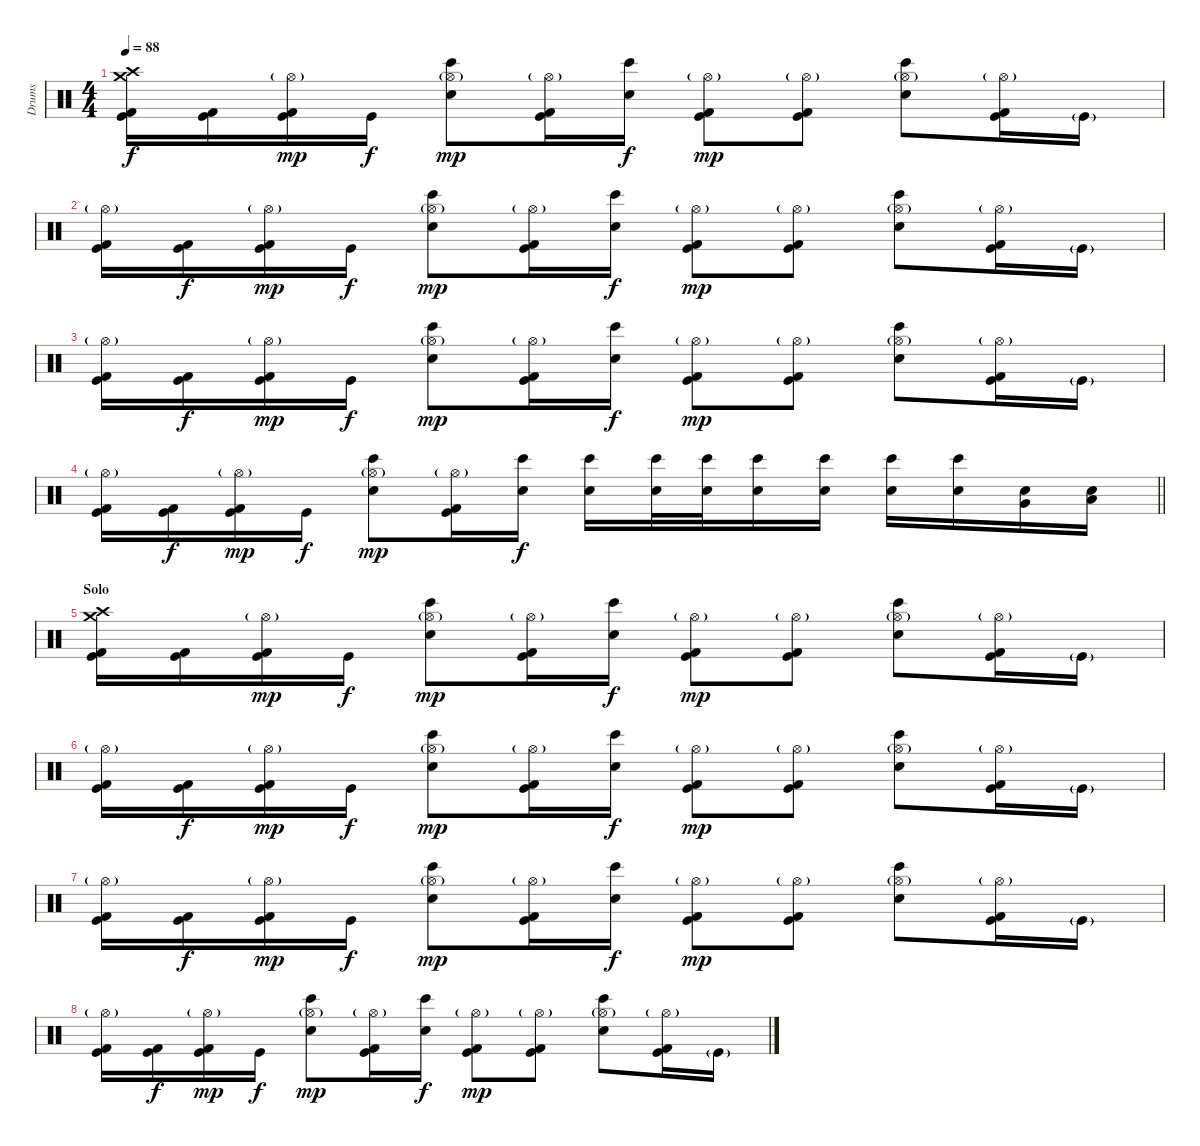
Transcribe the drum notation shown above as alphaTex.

\track ("Drums" "Drums") {instrument percussion}
\staff {score}
\articulation defaults
\ts (4 4)
\tempo 88
\clef neutral
\ks c
("Crash medium (hit)" "Crash high (hit)" "Kick (hit) 2" "Kick (hit)").16{dy f} ("Kick (hit) 2" "Kick (hit)").16 ("Hi-Hat (open)"{g} "Kick (hit) 2" "Kick (hit)").16{dy mp} "Kick (hit)".16{dy f} ("Hi-Hat (open)"{g} "Bongo High (hit)" "Snare (hit) 2").8{dy mp} ("Hi-Hat (open)"{g} "Kick (hit) 2" "Kick (hit)").16 ("Bongo High (hit)" "Snare (hit) 2").16{dy f} ("Hi-Hat (open)"{g} "Kick (hit) 2" "Kick (hit)").8{dy mp} ("Hi-Hat (open)"{g} "Kick (hit) 2" "Kick (hit)").8 ("Hi-Hat (open)"{g} "Bongo High (hit)" "Snare (hit) 2").8 ("Hi-Hat (open)"{g} "Kick (hit) 2" "Kick (hit)").16 "Kick (hit)"{g}.16 |
("Hi-Hat (open)"{g} "Kick (hit) 2" "Kick (hit)").16 ("Kick (hit) 2" "Kick (hit)").16{dy f} ("Hi-Hat (open)"{g} "Kick (hit) 2" "Kick (hit)").16{dy mp} "Kick (hit)".16{dy f} ("Hi-Hat (open)"{g} "Bongo High (hit)" "Snare (hit) 2").8{dy mp} ("Hi-Hat (open)"{g} "Kick (hit) 2" "Kick (hit)").16 ("Bongo High (hit)" "Snare (hit) 2").16{dy f} ("Hi-Hat (open)"{g} "Kick (hit) 2" "Kick (hit)").8{dy mp} ("Hi-Hat (open)"{g} "Kick (hit) 2" "Kick (hit)").8 ("Hi-Hat (open)"{g} "Bongo High (hit)" "Snare (hit) 2").8 ("Hi-Hat (open)"{g} "Kick (hit) 2" "Kick (hit)").16 "Kick (hit)"{g}.16 |
("Hi-Hat (open)"{g} "Kick (hit) 2" "Kick (hit)").16 ("Kick (hit) 2" "Kick (hit)").16{dy f} ("Hi-Hat (open)"{g} "Kick (hit) 2" "Kick (hit)").16{dy mp} "Kick (hit)".16{dy f} ("Hi-Hat (open)"{g} "Bongo High (hit)" "Snare (hit) 2").8{dy mp} ("Hi-Hat (open)"{g} "Kick (hit) 2" "Kick (hit)").16 ("Bongo High (hit)" "Snare (hit) 2").16{dy f} ("Hi-Hat (open)"{g} "Kick (hit) 2" "Kick (hit)").8{dy mp} ("Hi-Hat (open)"{g} "Kick (hit) 2" "Kick (hit)").8 ("Hi-Hat (open)"{g} "Bongo High (hit)" "Snare (hit) 2").8 ("Hi-Hat (open)"{g} "Kick (hit) 2" "Kick (hit)").16 "Kick (hit)"{g}.16 |
\barLineRight lightlight
("Hi-Hat (open)"{g} "Kick (hit) 2" "Kick (hit)").16 ("Kick (hit) 2" "Kick (hit)").16{dy f} ("Hi-Hat (open)"{g} "Kick (hit) 2" "Kick (hit)").16{dy mp} "Kick (hit)".16{dy f} ("Hi-Hat (open)"{g} "Bongo High (hit)" "Snare (hit) 2").8{dy mp} ("Hi-Hat (open)"{g} "Kick (hit) 2" "Kick (hit)").16 ("Bongo High (hit)" "Snare (hit) 2").16{dy f} ("Bongo High (hit)" "Snare (hit) 2").16 ("Bongo High (hit)" "Snare (hit) 2").32 ("Bongo High (hit)" "Snare (hit) 2").32 ("Bongo High (hit)" "Snare (hit) 2").16 ("Bongo High (hit)" "Snare (hit) 2").16 ("Bongo High (hit)" "Snare (hit) 2").16 ("Bongo High (hit)" "Snare (hit) 2").16 ("Snare (hit) 2" "Very Low Tom (hit)").16 ("Snare (hit) 2" "Low Floor Tom (hit)").16 |
\section ("" "Solo")
("Crash medium (hit)" "Crash high (hit)" "Kick (hit) 2" "Kick (hit)").16 ("Kick (hit) 2" "Kick (hit)").16 ("Hi-Hat (open)"{g} "Kick (hit) 2" "Kick (hit)").16{dy mp} "Kick (hit)".16{dy f} ("Hi-Hat (open)"{g} "Bongo High (hit)" "Snare (hit) 2").8{dy mp} ("Hi-Hat (open)"{g} "Kick (hit) 2" "Kick (hit)").16 ("Bongo High (hit)" "Snare (hit) 2").16{dy f} ("Hi-Hat (open)"{g} "Kick (hit) 2" "Kick (hit)").8{dy mp} ("Hi-Hat (open)"{g} "Kick (hit) 2" "Kick (hit)").8 ("Hi-Hat (open)"{g} "Bongo High (hit)" "Snare (hit) 2").8 ("Hi-Hat (open)"{g} "Kick (hit) 2" "Kick (hit)").16 "Kick (hit)"{g}.16 |
("Hi-Hat (open)"{g} "Kick (hit) 2" "Kick (hit)").16 ("Kick (hit) 2" "Kick (hit)").16{dy f} ("Hi-Hat (open)"{g} "Kick (hit) 2" "Kick (hit)").16{dy mp} "Kick (hit)".16{dy f} ("Hi-Hat (open)"{g} "Bongo High (hit)" "Snare (hit) 2").8{dy mp} ("Hi-Hat (open)"{g} "Kick (hit) 2" "Kick (hit)").16 ("Bongo High (hit)" "Snare (hit) 2").16{dy f} ("Hi-Hat (open)"{g} "Kick (hit) 2" "Kick (hit)").8{dy mp} ("Hi-Hat (open)"{g} "Kick (hit) 2" "Kick (hit)").8 ("Hi-Hat (open)"{g} "Bongo High (hit)" "Snare (hit) 2").8 ("Hi-Hat (open)"{g} "Kick (hit) 2" "Kick (hit)").16 "Kick (hit)"{g}.16 |
("Hi-Hat (open)"{g} "Kick (hit) 2" "Kick (hit)").16 ("Kick (hit) 2" "Kick (hit)").16{dy f} ("Hi-Hat (open)"{g} "Kick (hit) 2" "Kick (hit)").16{dy mp} "Kick (hit)".16{dy f} ("Hi-Hat (open)"{g} "Bongo High (hit)" "Snare (hit) 2").8{dy mp} ("Hi-Hat (open)"{g} "Kick (hit) 2" "Kick (hit)").16 ("Bongo High (hit)" "Snare (hit) 2").16{dy f} ("Hi-Hat (open)"{g} "Kick (hit) 2" "Kick (hit)").8{dy mp} ("Hi-Hat (open)"{g} "Kick (hit) 2" "Kick (hit)").8 ("Hi-Hat (open)"{g} "Bongo High (hit)" "Snare (hit) 2").8 ("Hi-Hat (open)"{g} "Kick (hit) 2" "Kick (hit)").16 "Kick (hit)"{g}.16 |
("Hi-Hat (open)"{g} "Kick (hit) 2" "Kick (hit)").16 ("Kick (hit) 2" "Kick (hit)").16{dy f} ("Hi-Hat (open)"{g} "Kick (hit) 2" "Kick (hit)").16{dy mp} "Kick (hit)".16{dy f} ("Hi-Hat (open)"{g} "Bongo High (hit)" "Snare (hit) 2").8{dy mp} ("Hi-Hat (open)"{g} "Kick (hit) 2" "Kick (hit)").16 ("Bongo High (hit)" "Snare (hit) 2").16{dy f} ("Hi-Hat (open)"{g} "Kick (hit) 2" "Kick (hit)").8{dy mp} ("Hi-Hat (open)"{g} "Kick (hit) 2" "Kick (hit)").8 ("Hi-Hat (open)"{g} "Bongo High (hit)" "Snare (hit) 2").8 ("Hi-Hat (open)"{g} "Kick (hit) 2" "Kick (hit)").16 "Kick (hit)"{g}.16
